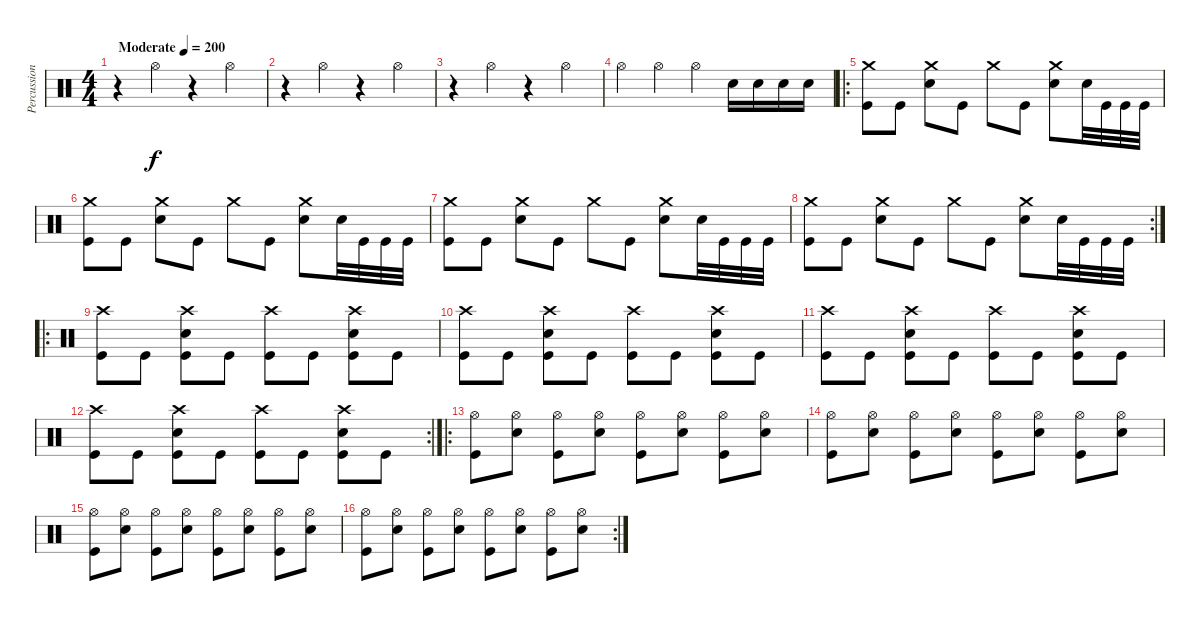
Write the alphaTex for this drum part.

\track ("Percussion" "Percussion") {instrument percussion}
\staff {score}
\articulation defaults
\ts (4 4)
\tempo (200 "Moderate")
\clef neutral
\ks c
r.4{dy f} "Hi-Hat (open)".4 r.4 "Hi-Hat (open)".4 |
r.4 "Hi-Hat (open)".4 r.4 "Hi-Hat (open)".4 |
r.4 "Hi-Hat (open)".4 r.4 "Hi-Hat (open)".4 |
"Hi-Hat (open)".4 "Hi-Hat (open)".4 "Hi-Hat (open)".4 "Snare (hit) 2".16 "Snare (hit) 2".16 "Snare (hit) 2".16 "Snare (hit) 2".16 |
\ro
("Crash medium (hit)" "Kick (hit)").8 "Kick (hit)".8 ("Crash medium (hit)" "Snare (hit) 2").8 "Kick (hit)".8 "Crash medium (hit)".8 "Kick (hit)".8 ("Crash medium (hit)" "Snare (hit) 2").8 "Snare (hit) 2".32 "Kick (hit)".32 "Kick (hit)".32 "Kick (hit)".32 |
("Crash medium (hit)" "Kick (hit)").8 "Kick (hit)".8 ("Crash medium (hit)" "Snare (hit) 2").8 "Kick (hit)".8 "Crash medium (hit)".8 "Kick (hit)".8 ("Crash medium (hit)" "Snare (hit) 2").8 "Snare (hit) 2".32 "Kick (hit)".32 "Kick (hit)".32 "Kick (hit)".32 |
("Crash medium (hit)" "Kick (hit)").8 "Kick (hit)".8 ("Crash medium (hit)" "Snare (hit) 2").8 "Kick (hit)".8 "Crash medium (hit)".8 "Kick (hit)".8 ("Crash medium (hit)" "Snare (hit) 2").8 "Snare (hit) 2".32 "Kick (hit)".32 "Kick (hit)".32 "Kick (hit)".32 |
\rc 2
("Crash medium (hit)" "Kick (hit)").8 "Kick (hit)".8 ("Crash medium (hit)" "Snare (hit) 2").8 "Kick (hit)".8 "Crash medium (hit)".8 "Kick (hit)".8 ("Crash medium (hit)" "Snare (hit) 2").8 "Snare (hit) 2".32 "Kick (hit)".32 "Kick (hit)".32 "Kick (hit)".32 |
\ro
("Crash high (hit)" "Kick (hit)").8 "Kick (hit)".8 ("Crash high (hit)" "Snare (hit) 2" "Kick (hit)").8 "Kick (hit)".8 ("Crash high (hit)" "Kick (hit)").8 "Kick (hit)".8 ("Crash high (hit)" "Snare (hit) 2" "Kick (hit)").8 "Kick (hit)".8 |
("Crash high (hit)" "Kick (hit)").8 "Kick (hit)".8 ("Crash high (hit)" "Snare (hit) 2" "Kick (hit)").8 "Kick (hit)".8 ("Crash high (hit)" "Kick (hit)").8 "Kick (hit)".8 ("Crash high (hit)" "Snare (hit) 2" "Kick (hit)").8 "Kick (hit)".8 |
("Crash high (hit)" "Kick (hit)").8 "Kick (hit)".8 ("Crash high (hit)" "Snare (hit) 2" "Kick (hit)").8 "Kick (hit)".8 ("Crash high (hit)" "Kick (hit)").8 "Kick (hit)".8 ("Crash high (hit)" "Snare (hit) 2" "Kick (hit)").8 "Kick (hit)".8 |
\rc 2
("Crash high (hit)" "Kick (hit)").8 "Kick (hit)".8 ("Crash high (hit)" "Snare (hit) 2" "Kick (hit)").8 "Kick (hit)".8 ("Crash high (hit)" "Kick (hit)").8 "Kick (hit)".8 ("Crash high (hit)" "Snare (hit) 2" "Kick (hit)").8 "Kick (hit)".8 |
\ro
("Hi-Hat (open)" "Kick (hit)").8 ("Hi-Hat (open)" "Snare (hit) 2").8 ("Hi-Hat (open)" "Kick (hit)").8 ("Hi-Hat (open)" "Snare (hit) 2").8 ("Hi-Hat (open)" "Kick (hit)").8 ("Hi-Hat (open)" "Snare (hit) 2").8 ("Hi-Hat (open)" "Kick (hit)").8 ("Hi-Hat (open)" "Snare (hit) 2").8 |
("Hi-Hat (open)" "Kick (hit)").8 ("Hi-Hat (open)" "Snare (hit) 2").8 ("Hi-Hat (open)" "Kick (hit)").8 ("Hi-Hat (open)" "Snare (hit) 2").8 ("Hi-Hat (open)" "Kick (hit)").8 ("Hi-Hat (open)" "Snare (hit) 2").8 ("Hi-Hat (open)" "Kick (hit)").8 ("Hi-Hat (open)" "Snare (hit) 2").8 |
("Hi-Hat (open)" "Kick (hit)").8 ("Hi-Hat (open)" "Snare (hit) 2").8 ("Hi-Hat (open)" "Kick (hit)").8 ("Hi-Hat (open)" "Snare (hit) 2").8 ("Hi-Hat (open)" "Kick (hit)").8 ("Hi-Hat (open)" "Snare (hit) 2").8 ("Hi-Hat (open)" "Kick (hit)").8 ("Hi-Hat (open)" "Snare (hit) 2").8 |
\rc 2
("Hi-Hat (open)" "Kick (hit)").8 ("Hi-Hat (open)" "Snare (hit) 2").8 ("Hi-Hat (open)" "Kick (hit)").8 ("Hi-Hat (open)" "Snare (hit) 2").8 ("Hi-Hat (open)" "Kick (hit)").8 ("Hi-Hat (open)" "Snare (hit) 2").8 ("Hi-Hat (open)" "Kick (hit)").8 ("Hi-Hat (open)" "Snare (hit) 2").8
